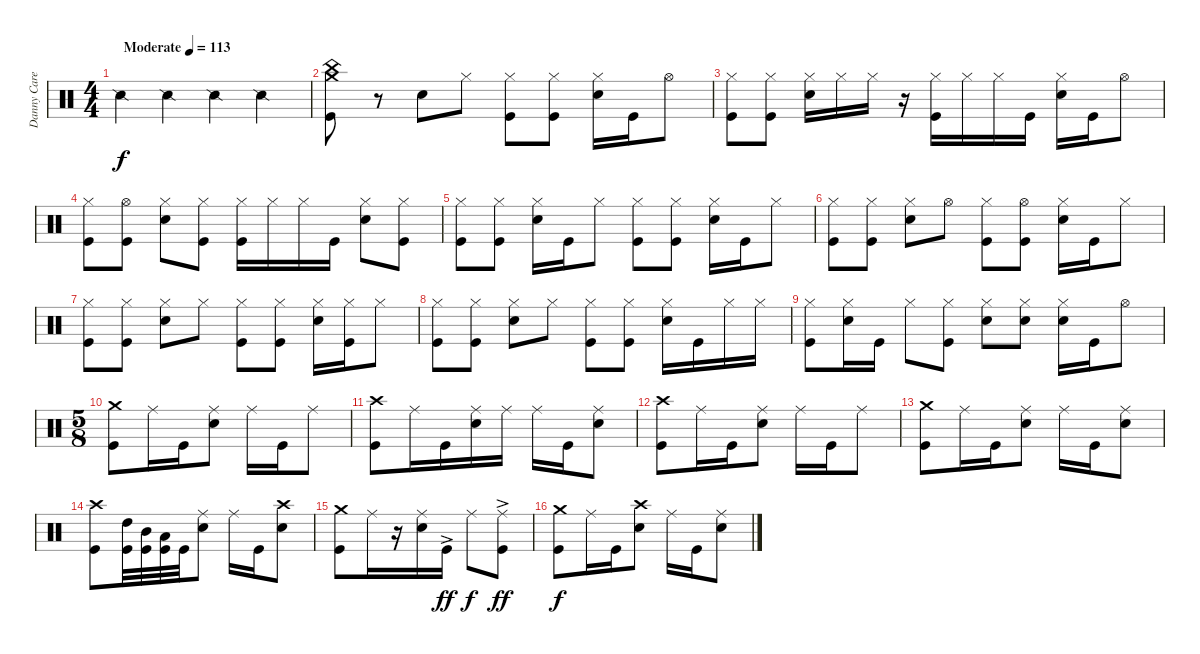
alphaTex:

\track ("Danny Carey (drum)" "Danny Care") {instrument percussion}
\staff {score}
\articulation defaults
\ts (4 4)
\tempo (113 "Moderate")
\clef neutral
\ks c "Snare (side stick) 2".4{dy f} "Snare (side stick) 2".4 "Snare (side stick) 2".4 "Snare (side stick) 2".4
|
("Crash medium (hit)" "China (hit)" "Kick (hit)").8 r.8 "Snare (hit) 2".8 "Hi-Hat (closed)".8 ("Hi-Hat (closed)" "Kick (hit)").8 ("Hi-Hat (closed)" "Kick (hit)").8 ("Hi-Hat (closed)" "Snare (hit) 2").16 "Kick (hit)".16 "Hi-Hat (open)".8 |
("Hi-Hat (closed)" "Kick (hit)").8 ("Hi-Hat (closed)" "Kick (hit)").8 ("Hi-Hat (closed)" "Snare (hit) 2").16 "Hi-Hat (closed)".16 "Hi-Hat (closed)".16 r.16 ("Hi-Hat (closed)" "Kick (hit)").16 "Hi-Hat (closed)".16 "Hi-Hat (closed)".16 "Kick (hit)".16 ("Hi-Hat (closed)" "Snare (hit) 2").16 "Kick (hit)".16 "Hi-Hat (open)".8 |
("Hi-Hat (closed)" "Kick (hit)").8 ("Hi-Hat (open)" "Kick (hit)").8 ("Hi-Hat (closed)" "Snare (hit) 2").8 ("Hi-Hat (closed)" "Kick (hit)").8 ("Hi-Hat (closed)" "Kick (hit)").16 "Hi-Hat (closed)".16 "Hi-Hat (closed)".16 "Kick (hit)".16 ("Hi-Hat (closed)" "Snare (hit) 2").8 ("Hi-Hat (closed)" "Kick (hit)").8 |
("Hi-Hat (closed)" "Kick (hit)").8 ("Hi-Hat (closed)" "Kick (hit)").8 ("Hi-Hat (closed)" "Snare (hit) 2").16 "Kick (hit)".16 "Hi-Hat (closed)".8 ("Hi-Hat (closed)" "Kick (hit)").8 ("Hi-Hat (closed)" "Kick (hit)").8 ("Hi-Hat (closed)" "Snare (hit) 2").16 "Kick (hit)".16 "Hi-Hat (closed)".8 |
("Hi-Hat (closed)" "Kick (hit)").8 ("Hi-Hat (closed)" "Kick (hit)").8 ("Hi-Hat (closed)" "Snare (hit) 2").8 "Hi-Hat (open)".8 ("Hi-Hat (closed)" "Kick (hit)").8 ("Hi-Hat (open)" "Kick (hit)").8 ("Hi-Hat (closed)" "Snare (hit) 2").16 "Kick (hit)".16 "Hi-Hat (closed)".8 |
("Hi-Hat (closed)" "Kick (hit)").8 ("Hi-Hat (closed)" "Kick (hit)").8 ("Hi-Hat (closed)" "Snare (hit) 2").8 "Hi-Hat (closed)".8 ("Hi-Hat (closed)" "Kick (hit)").8 ("Hi-Hat (closed)" "Kick (hit)").8 ("Hi-Hat (closed)" "Snare (hit) 2").16 ("Hi-Hat (closed)" "Kick (hit)").16 "Hi-Hat (closed)".8 |
("Hi-Hat (closed)" "Kick (hit)").8 ("Hi-Hat (closed)" "Kick (hit)").8 ("Hi-Hat (closed)" "Snare (hit) 2").8 "Hi-Hat (closed)".8 ("Hi-Hat (closed)" "Kick (hit)").8 ("Hi-Hat (closed)" "Kick (hit)").8 ("Hi-Hat (closed)" "Snare (hit) 2").16 "Kick (hit)".16 "Hi-Hat (closed)".16 "Hi-Hat (closed)".16 |
("Hi-Hat (closed)" "Kick (hit)").8 ("Hi-Hat (closed)" "Snare (hit) 2").16 "Kick (hit)".16 "Hi-Hat (closed)".8 ("Hi-Hat (closed)" "Kick (hit)").8 ("Hi-Hat (closed)" "Snare (hit) 2").8 ("Hi-Hat (closed)" "Snare (hit) 2").8 ("Hi-Hat (closed)" "Snare (hit) 2").16 "Kick (hit)".16 "Hi-Hat (open)".8 |
\ts (5 8)
("Crash medium (hit)" "Kick (hit)").8 "Ride (middle)".16 "Kick (hit)".16 ("Ride (middle)" "Snare (hit) 2").8 "Ride (middle)".16 "Kick (hit)".16 "Ride (middle)".8 |
("Crash high (hit)" "Kick (hit)").8 "Ride (middle)".16 "Kick (hit)".16 ("Ride (middle)" "Snare (hit) 2").16 "Ride (middle)".16 "Ride (middle)".16 "Kick (hit)".16 ("Ride (middle)" "Snare (hit) 2").8 |
("Crash high (hit)" "Kick (hit)").8 "Ride (middle)".16 "Kick (hit)".16 ("Ride (middle)" "Snare (hit) 2").8 "Ride (middle)".16 "Kick (hit)".16 "Ride (middle)".8 |
("Crash medium (hit)" "Kick (hit)").8 "Ride (middle)".16 "Kick (hit)".16 ("Ride (middle)" "Snare (hit) 2").8 "Ride (middle)".16 "Kick (hit)".16 ("Ride (middle)" "Snare (hit) 2").8 |
("Crash high (hit)" "Kick (hit)").8 ("High Tom (hit)" "Kick (hit)").32 ("Mid Tom (hit)" "Kick (hit)").32 ("Low Tom (hit)" "Kick (hit)").32 "Kick (hit)".32 ("Ride (middle)" "Snare (hit) 2").8 "Ride (middle)".16 "Kick (hit)".16 ("Crash high (hit)" "Snare (hit) 2").8 |
("Crash medium (hit)" "Kick (hit)").8 "Ride (middle)".16 r.16 ("Ride (middle)" "Snare (hit) 2").16 "Kick (hit)"{ac}.16{dy ff} "Ride (middle)".8{dy f} ("Ride (middle)" "Kick (hit)"{ac}).8{dy ff} |
("Crash medium (hit)" "Kick (hit)").8{dy f} "Ride (middle)".16 "Kick (hit)".16 ("Crash high (hit)" "Snare (hit) 2").8 "Ride (middle)".16 "Kick (hit)".16 ("Ride (middle)" "Snare (hit) 2").8
